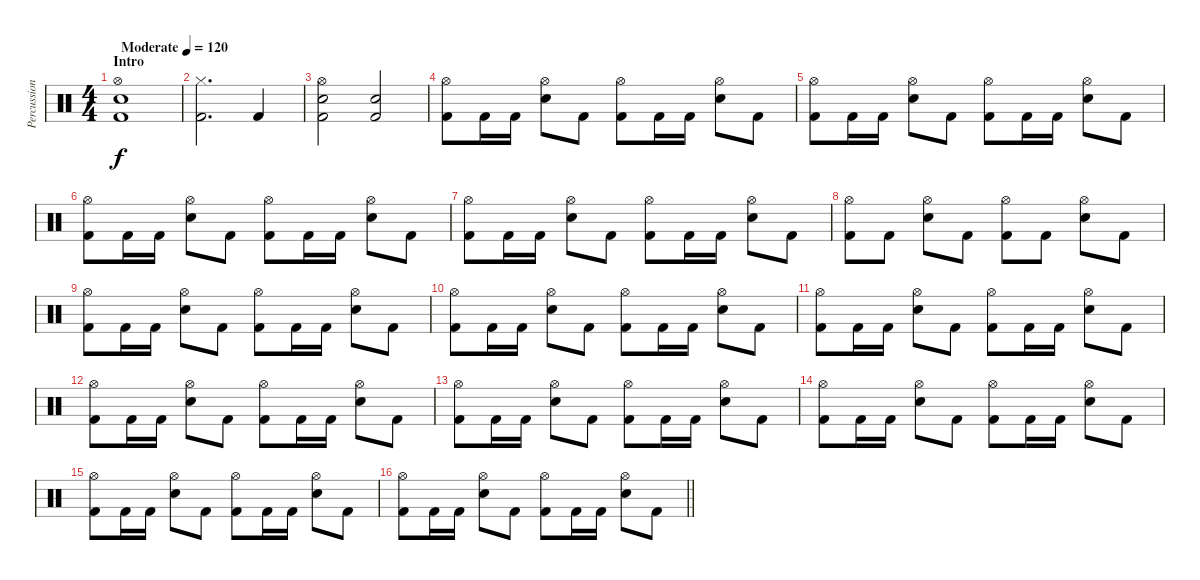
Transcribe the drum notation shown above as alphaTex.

\track ("Percussion" "Percussion") {instrument percussion}
\staff {score}
\articulation defaults
\ts (4 4)
\section ("" "Intro")
\tempo (120 "Moderate")
\clef neutral
\ks c
("Hi-Hat (open)" "Electric Snare (hit)" "Kick (hit) 2").1{dy f} |
("Hi-Hat (closed)" "Kick (hit) 2").2{d} "Kick (hit) 2".4 |
("Hi-Hat (open)" "Electric Snare (hit)" "Kick (hit) 2").2 ("Electric Snare (hit)" "Kick (hit) 2").2 |
("Hi-Hat (open)" "Kick (hit) 2").8 "Kick (hit) 2".16 "Kick (hit) 2".16 ("Hi-Hat (open)" "Electric Snare (hit)").8 "Kick (hit) 2".8 ("Hi-Hat (open)" "Kick (hit) 2").8 "Kick (hit) 2".16 "Kick (hit) 2".16 ("Hi-Hat (open)" "Electric Snare (hit)").8 "Kick (hit) 2".8 |
("Hi-Hat (open)" "Kick (hit) 2").8 "Kick (hit) 2".16 "Kick (hit) 2".16 ("Hi-Hat (open)" "Electric Snare (hit)").8 "Kick (hit) 2".8 ("Hi-Hat (open)" "Kick (hit) 2").8 "Kick (hit) 2".16 "Kick (hit) 2".16 ("Hi-Hat (open)" "Electric Snare (hit)").8 "Kick (hit) 2".8 |
("Hi-Hat (open)" "Kick (hit) 2").8 "Kick (hit) 2".16 "Kick (hit) 2".16 ("Hi-Hat (open)" "Electric Snare (hit)").8 "Kick (hit) 2".8 ("Hi-Hat (open)" "Kick (hit) 2").8 "Kick (hit) 2".16 "Kick (hit) 2".16 ("Hi-Hat (open)" "Electric Snare (hit)").8 "Kick (hit) 2".8 |
("Hi-Hat (open)" "Kick (hit) 2").8 "Kick (hit) 2".16 "Kick (hit) 2".16 ("Hi-Hat (open)" "Electric Snare (hit)").8 "Kick (hit) 2".8 ("Hi-Hat (open)" "Kick (hit) 2").8 "Kick (hit) 2".16 "Kick (hit) 2".16 ("Hi-Hat (open)" "Electric Snare (hit)").8 "Kick (hit) 2".8 |
("Hi-Hat (open)" "Kick (hit) 2").8 "Kick (hit) 2".8 ("Hi-Hat (open)" "Electric Snare (hit)").8 "Kick (hit) 2".8 ("Hi-Hat (open)" "Kick (hit) 2").8 "Kick (hit) 2".8 ("Hi-Hat (open)" "Electric Snare (hit)").8 "Kick (hit) 2".8 |
("Hi-Hat (open)" "Kick (hit) 2").8 "Kick (hit) 2".16 "Kick (hit) 2".16 ("Hi-Hat (open)" "Electric Snare (hit)").8 "Kick (hit) 2".8 ("Hi-Hat (open)" "Kick (hit) 2").8 "Kick (hit) 2".16 "Kick (hit) 2".16 ("Hi-Hat (open)" "Electric Snare (hit)").8 "Kick (hit) 2".8 |
("Hi-Hat (open)" "Kick (hit) 2").8 "Kick (hit) 2".16 "Kick (hit) 2".16 ("Hi-Hat (open)" "Electric Snare (hit)").8 "Kick (hit) 2".8 ("Hi-Hat (open)" "Kick (hit) 2").8 "Kick (hit) 2".16 "Kick (hit) 2".16 ("Hi-Hat (open)" "Electric Snare (hit)").8 "Kick (hit) 2".8 |
("Hi-Hat (open)" "Kick (hit) 2").8 "Kick (hit) 2".16 "Kick (hit) 2".16 ("Hi-Hat (open)" "Electric Snare (hit)").8 "Kick (hit) 2".8 ("Hi-Hat (open)" "Kick (hit) 2").8 "Kick (hit) 2".16 "Kick (hit) 2".16 ("Hi-Hat (open)" "Electric Snare (hit)").8 "Kick (hit) 2".8 |
("Hi-Hat (open)" "Kick (hit) 2").8 "Kick (hit) 2".16 "Kick (hit) 2".16 ("Hi-Hat (open)" "Electric Snare (hit)").8 "Kick (hit) 2".8 ("Hi-Hat (open)" "Kick (hit) 2").8 "Kick (hit) 2".16 "Kick (hit) 2".16 ("Hi-Hat (open)" "Electric Snare (hit)").8 "Kick (hit) 2".8 |
("Hi-Hat (open)" "Kick (hit) 2").8 "Kick (hit) 2".16 "Kick (hit) 2".16 ("Hi-Hat (open)" "Electric Snare (hit)").8 "Kick (hit) 2".8 ("Hi-Hat (open)" "Kick (hit) 2").8 "Kick (hit) 2".16 "Kick (hit) 2".16 ("Hi-Hat (open)" "Electric Snare (hit)").8 "Kick (hit) 2".8 |
("Hi-Hat (open)" "Kick (hit) 2").8 "Kick (hit) 2".16 "Kick (hit) 2".16 ("Hi-Hat (open)" "Electric Snare (hit)").8 "Kick (hit) 2".8 ("Hi-Hat (open)" "Kick (hit) 2").8 "Kick (hit) 2".16 "Kick (hit) 2".16 ("Hi-Hat (open)" "Electric Snare (hit)").8 "Kick (hit) 2".8 |
("Hi-Hat (open)" "Kick (hit) 2").8 "Kick (hit) 2".16 "Kick (hit) 2".16 ("Hi-Hat (open)" "Electric Snare (hit)").8 "Kick (hit) 2".8 ("Hi-Hat (open)" "Kick (hit) 2").8 "Kick (hit) 2".16 "Kick (hit) 2".16 ("Hi-Hat (open)" "Electric Snare (hit)").8 "Kick (hit) 2".8 |
\barLineRight lightlight
("Hi-Hat (open)" "Kick (hit) 2").8 "Kick (hit) 2".16 "Kick (hit) 2".16 ("Hi-Hat (open)" "Electric Snare (hit)").8 "Kick (hit) 2".8 ("Hi-Hat (open)" "Kick (hit) 2").8 "Kick (hit) 2".16 "Kick (hit) 2".16 ("Hi-Hat (open)" "Electric Snare (hit)").8 "Kick (hit) 2".8
